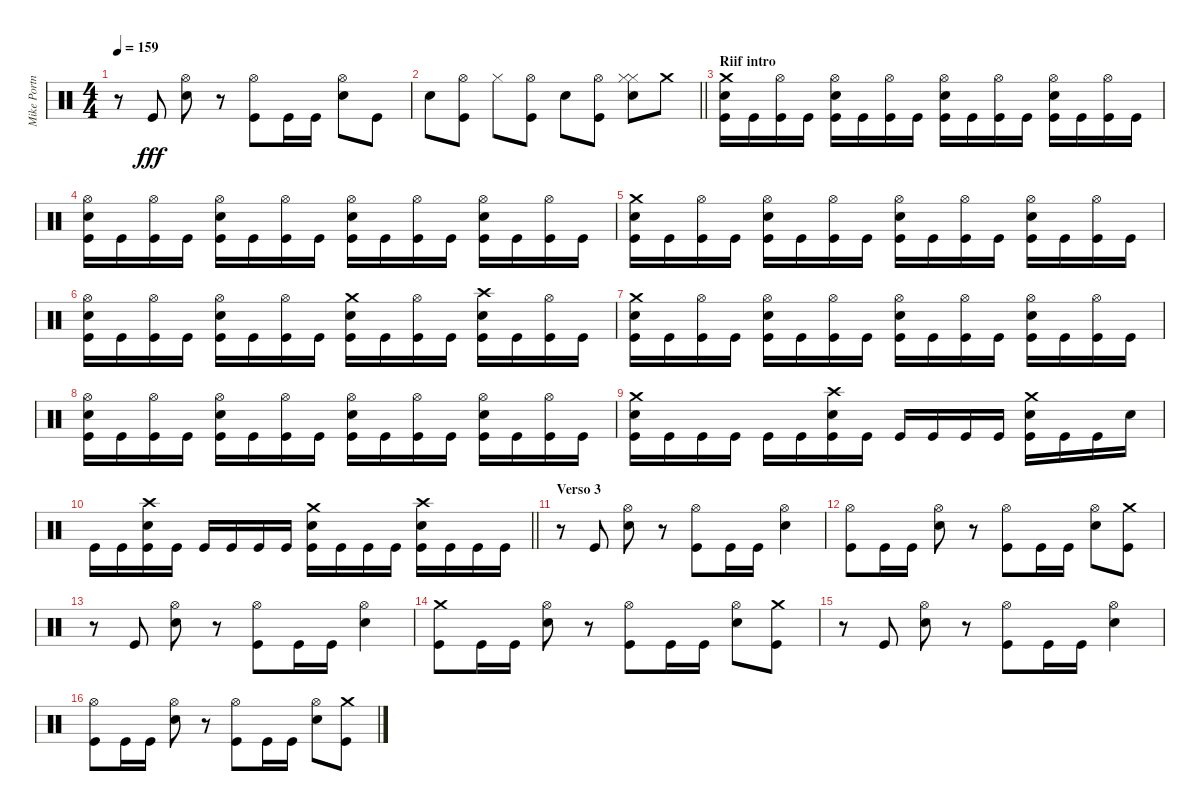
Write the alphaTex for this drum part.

\track ("Mike Portnoy" "Mike Portn") {instrument percussion}
\staff {score}
\articulation defaults
\ts (4 4)
\tempo 159
\clef neutral
\ks c
r.8{dy fff} "Kick (hit)".8 ("Hi-Hat (open)" "Electric Snare (hit)").8 r.8 ("Hi-Hat (open)" "Kick (hit)").8 "Kick (hit)".16 "Kick (hit)".16 ("Hi-Hat (open)" "Electric Snare (hit)").8 "Kick (hit)".8 |
\barLineRight lightlight "Electric Snare (hit)".8
("Hi-Hat (open)" "Kick (hit)").8 "Hi-Hat (closed)".8 ("Hi-Hat (open)" "Kick (hit)").8 "Electric Snare (hit)".8 ("Hi-Hat (open)" "Kick (hit)").8 ("Hi-Hat (closed)" "Electric Snare (hit)" "Hi-Hat (closed)").8 "Crash medium (hit)".8 |
\section ("" "Riif intro")
("Crash medium (hit)" "Electric Snare (hit)" "Kick (hit)").16 "Kick (hit)".16 ("Hi-Hat (open)" "Kick (hit)").16 "Kick (hit)".16 ("Hi-Hat (open)" "Electric Snare (hit)" "Kick (hit)").16 "Kick (hit)".16 ("Hi-Hat (open)" "Kick (hit)").16 "Kick (hit)".16 ("Hi-Hat (open)" "Electric Snare (hit)" "Kick (hit)").16 "Kick (hit)".16 ("Hi-Hat (open)" "Kick (hit)").16 "Kick (hit)".16 ("Hi-Hat (open)" "Electric Snare (hit)" "Kick (hit)").16 "Kick (hit)".16 ("Hi-Hat (open)" "Kick (hit)").16 "Kick (hit)".16 |
("Hi-Hat (open)" "Electric Snare (hit)" "Kick (hit)").16 "Kick (hit)".16 ("Hi-Hat (open)" "Kick (hit)").16 "Kick (hit)".16 ("Hi-Hat (open)" "Electric Snare (hit)" "Kick (hit)").16 "Kick (hit)".16 ("Hi-Hat (open)" "Kick (hit)").16 "Kick (hit)".16 ("Hi-Hat (open)" "Electric Snare (hit)" "Kick (hit)").16 "Kick (hit)".16 ("Hi-Hat (open)" "Kick (hit)").16 "Kick (hit)".16 ("Hi-Hat (open)" "Electric Snare (hit)" "Kick (hit)").16 "Kick (hit)".16 ("Hi-Hat (open)" "Kick (hit)").16 "Kick (hit)".16 |
("Crash medium (hit)" "Electric Snare (hit)" "Kick (hit)").16 "Kick (hit)".16 ("Hi-Hat (open)" "Kick (hit)").16 "Kick (hit)".16 ("Hi-Hat (open)" "Electric Snare (hit)" "Kick (hit)").16 "Kick (hit)".16 ("Hi-Hat (open)" "Kick (hit)").16 "Kick (hit)".16 ("Hi-Hat (open)" "Electric Snare (hit)" "Kick (hit)").16 "Kick (hit)".16 ("Hi-Hat (open)" "Kick (hit)").16 "Kick (hit)".16 ("Hi-Hat (open)" "Electric Snare (hit)" "Kick (hit)").16 "Kick (hit)".16 ("Hi-Hat (open)" "Kick (hit)").16 "Kick (hit)".16 |
("Hi-Hat (open)" "Electric Snare (hit)" "Kick (hit)").16 "Kick (hit)".16 ("Hi-Hat (open)" "Kick (hit)").16 "Kick (hit)".16 ("Hi-Hat (open)" "Electric Snare (hit)" "Kick (hit)").16 "Kick (hit)".16 ("Hi-Hat (open)" "Kick (hit)").16 "Kick (hit)".16 ("Crash medium (hit)" "Electric Snare (hit)" "Kick (hit)").16 "Kick (hit)".16 ("Hi-Hat (open)" "Kick (hit)").16 "Kick (hit)".16 ("Crash high (hit)" "Electric Snare (hit)" "Kick (hit)").16 "Kick (hit)".16 ("Hi-Hat (open)" "Kick (hit)").16 "Kick (hit)".16 |
("Crash medium (hit)" "Electric Snare (hit)" "Kick (hit)").16 "Kick (hit)".16 ("Hi-Hat (open)" "Kick (hit)").16 "Kick (hit)".16 ("Hi-Hat (open)" "Electric Snare (hit)" "Kick (hit)").16 "Kick (hit)".16 ("Hi-Hat (open)" "Kick (hit)").16 "Kick (hit)".16 ("Hi-Hat (open)" "Electric Snare (hit)" "Kick (hit)").16 "Kick (hit)".16 ("Hi-Hat (open)" "Kick (hit)").16 "Kick (hit)".16 ("Hi-Hat (open)" "Electric Snare (hit)" "Kick (hit)").16 "Kick (hit)".16 ("Hi-Hat (open)" "Kick (hit)").16 "Kick (hit)".16 |
("Hi-Hat (open)" "Electric Snare (hit)" "Kick (hit)").16 "Kick (hit)".16 ("Hi-Hat (open)" "Kick (hit)").16 "Kick (hit)".16 ("Hi-Hat (open)" "Electric Snare (hit)" "Kick (hit)").16 "Kick (hit)".16 ("Hi-Hat (open)" "Kick (hit)").16 "Kick (hit)".16 ("Hi-Hat (open)" "Electric Snare (hit)" "Kick (hit)").16 "Kick (hit)".16 ("Hi-Hat (open)" "Kick (hit)").16 "Kick (hit)".16 ("Hi-Hat (open)" "Electric Snare (hit)" "Kick (hit)").16 "Kick (hit)".16 ("Hi-Hat (open)" "Kick (hit)").16 "Kick (hit)".16 |
("Crash medium (hit)" "Electric Snare (hit)" "Kick (hit)").16 "Kick (hit)".16 "Kick (hit)".16 "Kick (hit)".16 "Kick (hit)".16 "Kick (hit)".16 ("Crash high (hit)" "Electric Snare (hit)" "Kick (hit)").16 "Kick (hit)".16 "Kick (hit)".16 "Kick (hit)".16 "Kick (hit)".16 "Kick (hit)".16 ("Crash medium (hit)" "Electric Snare (hit)" "Kick (hit)").16 "Kick (hit)".16 "Kick (hit)".16 "Snare (hit)".16 |
\barLineRight lightlight "Kick (hit)".16 "Kick (hit)".16
("Crash high (hit)" "Electric Snare (hit)" "Kick (hit)").16 "Kick (hit)".16 "Kick (hit)".16 "Kick (hit)".16 "Kick (hit)".16 "Kick (hit)".16 ("Crash medium (hit)" "Electric Snare (hit)" "Kick (hit)").16 "Kick (hit)".16 "Kick (hit)".16 "Kick (hit)".16 ("Crash high (hit)" "Electric Snare (hit)" "Kick (hit)").16 "Kick (hit)".16 "Kick (hit)".16 "Kick (hit)".16 |
\section ("" "Verso 3")
r.8 "Kick (hit)".8 ("Hi-Hat (open)" "Electric Snare (hit)").8 r.8 ("Hi-Hat (open)" "Kick (hit)").8 "Kick (hit)".16 "Kick (hit)".16 ("Hi-Hat (open)" "Electric Snare (hit)").4 |
("Hi-Hat (open)" "Kick (hit)").8 "Kick (hit)".16 "Kick (hit)".16 ("Hi-Hat (open)" "Electric Snare (hit)").8 r.8 ("Hi-Hat (open)" "Kick (hit)").8 "Kick (hit)".16 "Kick (hit)".16 ("Hi-Hat (open)" "Electric Snare (hit)").8 ("Crash medium (hit)" "Kick (hit)").8 |
r.8 "Kick (hit)".8 ("Hi-Hat (open)" "Electric Snare (hit)").8 r.8 ("Hi-Hat (open)" "Kick (hit)").8 "Kick (hit)".16 "Kick (hit)".16 ("Hi-Hat (open)" "Electric Snare (hit)").4 |
("Crash medium (hit)" "Kick (hit)").8 "Kick (hit)".16 "Kick (hit)".16 ("Hi-Hat (open)" "Electric Snare (hit)").8 r.8 ("Hi-Hat (open)" "Kick (hit)").8 "Kick (hit)".16 "Kick (hit)".16 ("Hi-Hat (open)" "Electric Snare (hit)").8 ("Crash medium (hit)" "Kick (hit)").8 |
r.8 "Kick (hit)".8 ("Hi-Hat (open)" "Electric Snare (hit)").8 r.8 ("Hi-Hat (open)" "Kick (hit)").8 "Kick (hit)".16 "Kick (hit)".16 ("Hi-Hat (open)" "Electric Snare (hit)").4 |
("Hi-Hat (open)" "Kick (hit)").8 "Kick (hit)".16 "Kick (hit)".16 ("Hi-Hat (open)" "Electric Snare (hit)").8 r.8 ("Hi-Hat (open)" "Kick (hit)").8 "Kick (hit)".16 "Kick (hit)".16 ("Hi-Hat (open)" "Electric Snare (hit)").8 ("Crash medium (hit)" "Kick (hit)").8
